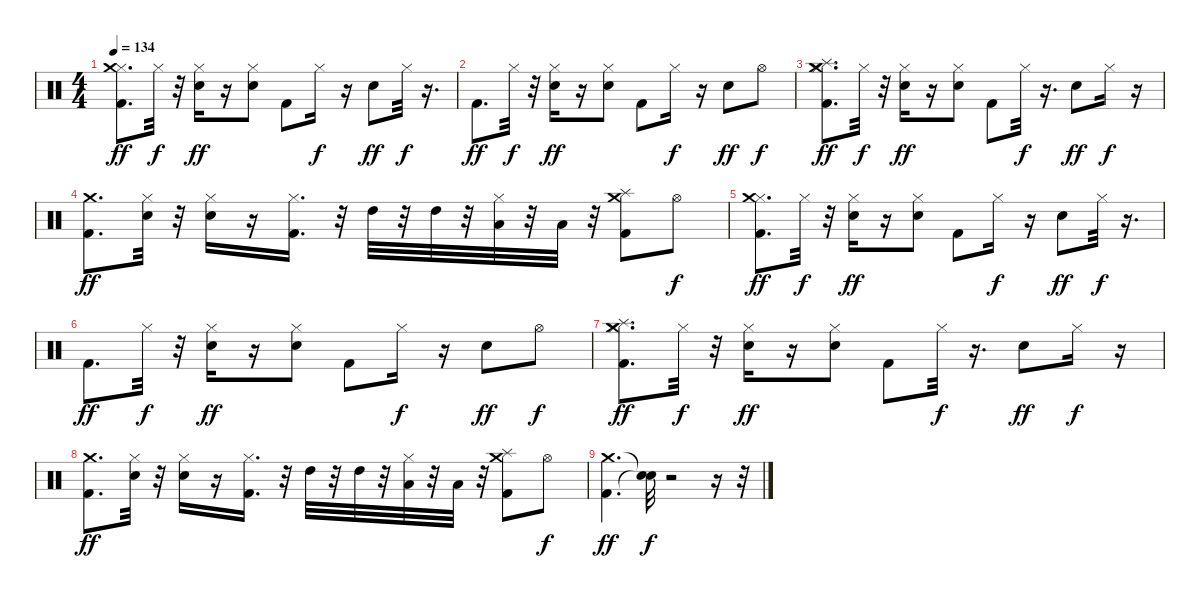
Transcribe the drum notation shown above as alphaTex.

\track "" {instrument percussion}
\staff {score}
\articulation defaults
\ts (4 4)
\tempo 134
\clef neutral
\ks c
("Hi-Hat (closed)" "Crash medium (hit)" "Kick (hit) 2").8{d dy ff} "Hi-Hat (closed)".32{dy f} r.32 ("Hi-Hat (closed)" "Snare (hit) 2").16{dy ff} r.16 ("Hi-Hat (closed)" "Snare (hit) 2").8 "Kick (hit) 2".8 "Hi-Hat (closed)".16{dy f} r.16 "Snare (hit) 2".8{dy ff} "Hi-Hat (closed)".32{dy f} r.16{d} |
"Kick (hit) 2".8{d dy ff} "Hi-Hat (closed)".32{dy f} r.32 ("Snare (hit) 2" "Hi-Hat (closed)").16{dy ff} r.16 ("Snare (hit) 2" "Hi-Hat (closed)").8 "Kick (hit) 2".8 "Hi-Hat (closed)".16{dy f} r.16 "Snare (hit) 2".8{dy ff} "Hi-Hat (open)".8{dy f} |
("Hi-Hat (closed)" "Splash (hit)" "Crash medium (hit)" "Kick (hit) 2").8{d dy ff} "Hi-Hat (closed)".32{dy f} r.32 ("Snare (hit) 2" "Hi-Hat (closed)").16{dy ff} r.16 ("Hi-Hat (closed)" "Snare (hit) 2").8 "Kick (hit) 2".8 "Hi-Hat (closed)".32{dy f} r.16{d} "Snare (hit) 2".8{dy ff} "Hi-Hat (closed)".16{dy f} r.16 |
("Kick (hit) 2" "Crash medium (hit)").8{d dy ff} ("Hi-Hat (closed)" "Snare (hit) 2").32 r.32 ("Snare (hit) 2" "Hi-Hat (closed)").16 r.16 ("Kick (hit) 2" "Hi-Hat (closed)").16{d} r.32 "High Tom (hit)".32 r.32 "High Tom (hit)".32 r.32 ("Low Tom (hit)" "Hi-Hat (closed)").32 r.32 "Low Tom (hit)".32 r.32 ("Kick (hit) 2" "Splash (hit)" "Crash medium (hit)").8 "Hi-Hat (open)".8{dy f} |
("Hi-Hat (closed)" "Kick (hit) 2" "Crash medium (hit)").8{d dy ff} "Hi-Hat (closed)".32{dy f} r.32 ("Hi-Hat (closed)" "Snare (hit) 2").16{dy ff} r.16 ("Hi-Hat (closed)" "Snare (hit) 2").8 "Kick (hit) 2".8 "Hi-Hat (closed)".16{dy f} r.16 "Snare (hit) 2".8{dy ff} "Hi-Hat (closed)".32{dy f} r.16{d} |
"Kick (hit) 2".8{d dy ff} "Hi-Hat (closed)".32{dy f} r.32 ("Snare (hit) 2" "Hi-Hat (closed)").16{dy ff} r.16 ("Snare (hit) 2" "Hi-Hat (closed)").8 "Kick (hit) 2".8 "Hi-Hat (closed)".16{dy f} r.16 "Snare (hit) 2".8{dy ff} "Hi-Hat (open)".8{dy f} |
("Hi-Hat (closed)" "Splash (hit)" "Crash medium (hit)" "Kick (hit) 2").8{d dy ff} "Hi-Hat (closed)".32{dy f} r.32 ("Snare (hit) 2" "Hi-Hat (closed)").16{dy ff} r.16 ("Hi-Hat (closed)" "Snare (hit) 2").8 "Kick (hit) 2".8 "Hi-Hat (closed)".32{dy f} r.16{d} "Snare (hit) 2".8{dy ff} "Hi-Hat (closed)".16{dy f} r.16 |
("Kick (hit) 2" "Crash medium (hit)").8{d dy ff} ("Hi-Hat (closed)" "Snare (hit) 2").32 r.32 ("Snare (hit) 2" "Hi-Hat (closed)").16 r.16 ("Kick (hit) 2" "Hi-Hat (closed)").16{d} r.32 "High Tom (hit)".32 r.32 "High Tom (hit)".32 r.32 ("Low Tom (hit)" "Hi-Hat (closed)").32 r.32 "Low Tom (hit)".32 r.32 ("Crash medium (hit)" "Splash (hit)" "Kick (hit) 2").8 "Hi-Hat (open)".8{dy f} |
("Crash medium (hit)" "Kick (hit) 2").4{d dy ff} ("Snare (hit)"{t} "Snare (hit)"{t}).32{dy f} r.2 r.16 r.32
